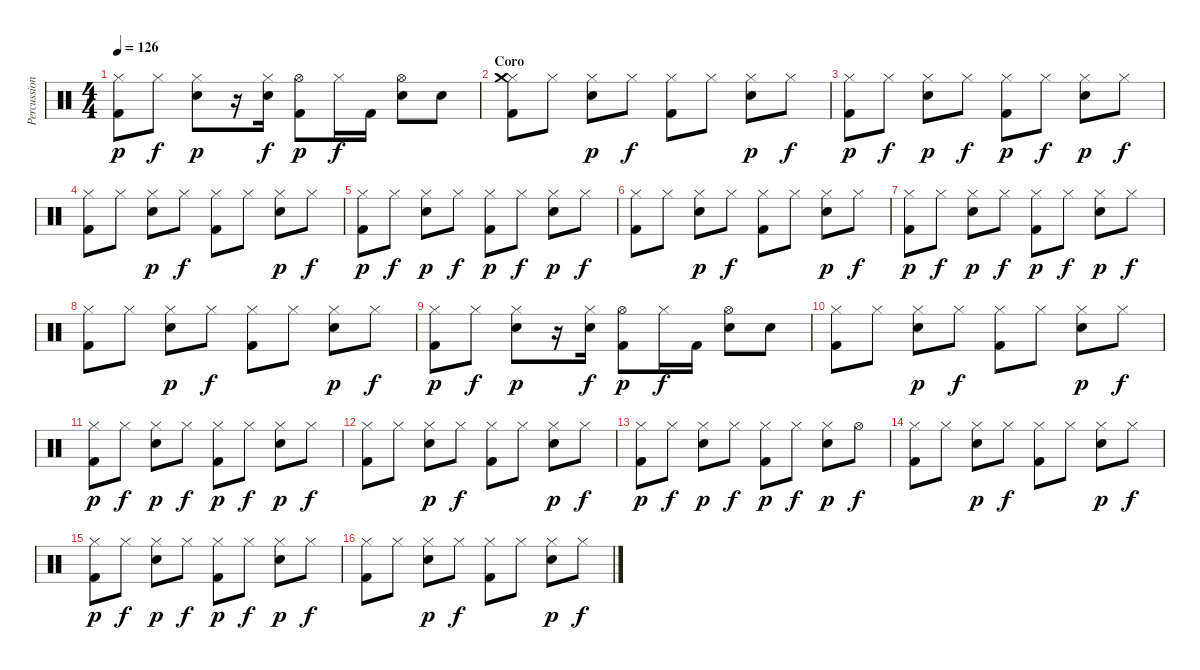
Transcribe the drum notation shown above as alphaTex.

\track ("Percussion" "Percussion") {instrument percussion}
\staff {score}
\articulation defaults
\ts (4 4)
\tempo 126
\clef neutral
\ks c
("Hi-Hat (closed)" "Kick (hit) 2").8{dy p} "Hi-Hat (closed)".8{dy f} ("Hi-Hat (closed)" "Snare (hit) 2").8{dy p} r.16 ("Hi-Hat (closed)" "Snare (hit) 2").16{dy f} ("Hi-Hat (open)" "Kick (hit) 2").8{dy p} "Hi-Hat (closed)".16{dy f} "Kick (hit) 2".16 ("Hi-Hat (open)" "Snare (hit) 2").8 "Snare (hit) 2".8 |
\section ("" "Coro")
("Hi-Hat (closed)" "Crash medium (hit)" "Kick (hit) 2").8 "Hi-Hat (closed)".8 ("Hi-Hat (closed)" "Snare (hit) 2").8{dy p} "Hi-Hat (closed)".8{dy f} ("Hi-Hat (closed)" "Kick (hit) 2").8 "Hi-Hat (closed)".8 ("Hi-Hat (closed)" "Snare (hit) 2").8{dy p} "Hi-Hat (closed)".8{dy f} |
("Hi-Hat (closed)" "Kick (hit) 2").8{dy p} "Hi-Hat (closed)".8{dy f} ("Hi-Hat (closed)" "Snare (hit) 2").8{dy p} "Hi-Hat (closed)".8{dy f} ("Hi-Hat (closed)" "Kick (hit) 2").8{dy p} "Hi-Hat (closed)".8{dy f} ("Hi-Hat (closed)" "Snare (hit) 2").8{dy p} "Hi-Hat (closed)".8{dy f} |
("Hi-Hat (closed)" "Kick (hit) 2").8 "Hi-Hat (closed)".8 ("Hi-Hat (closed)" "Snare (hit) 2").8{dy p} "Hi-Hat (closed)".8{dy f} ("Hi-Hat (closed)" "Kick (hit) 2").8 "Hi-Hat (closed)".8 ("Hi-Hat (closed)" "Snare (hit) 2").8{dy p} "Hi-Hat (closed)".8{dy f} |
("Hi-Hat (closed)" "Kick (hit) 2").8{dy p} "Hi-Hat (closed)".8{dy f} ("Hi-Hat (closed)" "Snare (hit) 2").8{dy p} "Hi-Hat (closed)".8{dy f} ("Hi-Hat (closed)" "Kick (hit) 2").8{dy p} "Hi-Hat (closed)".8{dy f} ("Hi-Hat (closed)" "Snare (hit) 2").8{dy p} "Hi-Hat (closed)".8{dy f} |
("Hi-Hat (closed)" "Kick (hit) 2").8 "Hi-Hat (closed)".8 ("Hi-Hat (closed)" "Snare (hit) 2").8{dy p} "Hi-Hat (closed)".8{dy f} ("Hi-Hat (closed)" "Kick (hit) 2").8 "Hi-Hat (closed)".8 ("Hi-Hat (closed)" "Snare (hit) 2").8{dy p} "Hi-Hat (closed)".8{dy f} |
("Hi-Hat (closed)" "Kick (hit) 2").8{dy p} "Hi-Hat (closed)".8{dy f} ("Hi-Hat (closed)" "Snare (hit) 2").8{dy p} "Hi-Hat (closed)".8{dy f} ("Hi-Hat (closed)" "Kick (hit) 2").8{dy p} "Hi-Hat (closed)".8{dy f} ("Hi-Hat (closed)" "Snare (hit) 2").8{dy p} "Hi-Hat (closed)".8{dy f} |
("Hi-Hat (closed)" "Kick (hit) 2").8 "Hi-Hat (closed)".8 ("Hi-Hat (closed)" "Snare (hit) 2").8{dy p} "Hi-Hat (closed)".8{dy f} ("Hi-Hat (closed)" "Kick (hit) 2").8 "Hi-Hat (closed)".8 ("Hi-Hat (closed)" "Snare (hit) 2").8{dy p} "Hi-Hat (closed)".8{dy f} |
("Hi-Hat (closed)" "Kick (hit) 2").8{dy p} "Hi-Hat (closed)".8{dy f} ("Hi-Hat (closed)" "Snare (hit) 2").8{dy p} r.16 ("Hi-Hat (closed)" "Snare (hit) 2").16{dy f} ("Hi-Hat (open)" "Kick (hit) 2").8{dy p} "Hi-Hat (closed)".16{dy f} "Kick (hit) 2".16 ("Hi-Hat (open)" "Snare (hit) 2").8 "Snare (hit) 2".8 |
("Hi-Hat (closed)" "Kick (hit) 2").8 "Hi-Hat (closed)".8 ("Hi-Hat (closed)" "Snare (hit) 2").8{dy p} "Hi-Hat (closed)".8{dy f} ("Hi-Hat (closed)" "Kick (hit) 2").8 "Hi-Hat (closed)".8 ("Hi-Hat (closed)" "Snare (hit) 2").8{dy p} "Hi-Hat (closed)".8{dy f} |
("Hi-Hat (closed)" "Kick (hit) 2").8{dy p} "Hi-Hat (closed)".8{dy f} ("Hi-Hat (closed)" "Snare (hit) 2").8{dy p} "Hi-Hat (closed)".8{dy f} ("Hi-Hat (closed)" "Kick (hit) 2").8{dy p} "Hi-Hat (closed)".8{dy f} ("Hi-Hat (closed)" "Snare (hit) 2").8{dy p} "Hi-Hat (closed)".8{dy f} |
("Hi-Hat (closed)" "Kick (hit) 2").8 "Hi-Hat (closed)".8 ("Hi-Hat (closed)" "Snare (hit) 2").8{dy p} "Hi-Hat (closed)".8{dy f} ("Hi-Hat (closed)" "Kick (hit) 2").8 "Hi-Hat (closed)".8 ("Hi-Hat (closed)" "Snare (hit) 2").8{dy p} "Hi-Hat (closed)".8{dy f} |
("Hi-Hat (closed)" "Kick (hit) 2").8{dy p} "Hi-Hat (closed)".8{dy f} ("Hi-Hat (closed)" "Snare (hit) 2").8{dy p} "Hi-Hat (closed)".8{dy f} ("Hi-Hat (closed)" "Kick (hit) 2").8{dy p} "Hi-Hat (closed)".8{dy f} ("Hi-Hat (closed)" "Snare (hit) 2").8{dy p} "Hi-Hat (open)".8{dy f} |
("Hi-Hat (closed)" "Kick (hit) 2").8 "Hi-Hat (closed)".8 ("Hi-Hat (closed)" "Snare (hit) 2").8{dy p} "Hi-Hat (closed)".8{dy f} ("Hi-Hat (closed)" "Kick (hit) 2").8 "Hi-Hat (closed)".8 ("Hi-Hat (closed)" "Snare (hit) 2").8{dy p} "Hi-Hat (closed)".8{dy f} |
("Hi-Hat (closed)" "Kick (hit) 2").8{dy p} "Hi-Hat (closed)".8{dy f} ("Hi-Hat (closed)" "Snare (hit) 2").8{dy p} "Hi-Hat (closed)".8{dy f} ("Hi-Hat (closed)" "Kick (hit) 2").8{dy p} "Hi-Hat (closed)".8{dy f} ("Hi-Hat (closed)" "Snare (hit) 2").8{dy p} "Hi-Hat (closed)".8{dy f} |
("Hi-Hat (closed)" "Kick (hit) 2").8 "Hi-Hat (closed)".8 ("Hi-Hat (closed)" "Snare (hit) 2").8{dy p} "Hi-Hat (closed)".8{dy f} ("Hi-Hat (closed)" "Kick (hit) 2").8 "Hi-Hat (closed)".8 ("Hi-Hat (closed)" "Snare (hit) 2").8{dy p} "Hi-Hat (closed)".8{dy f}
